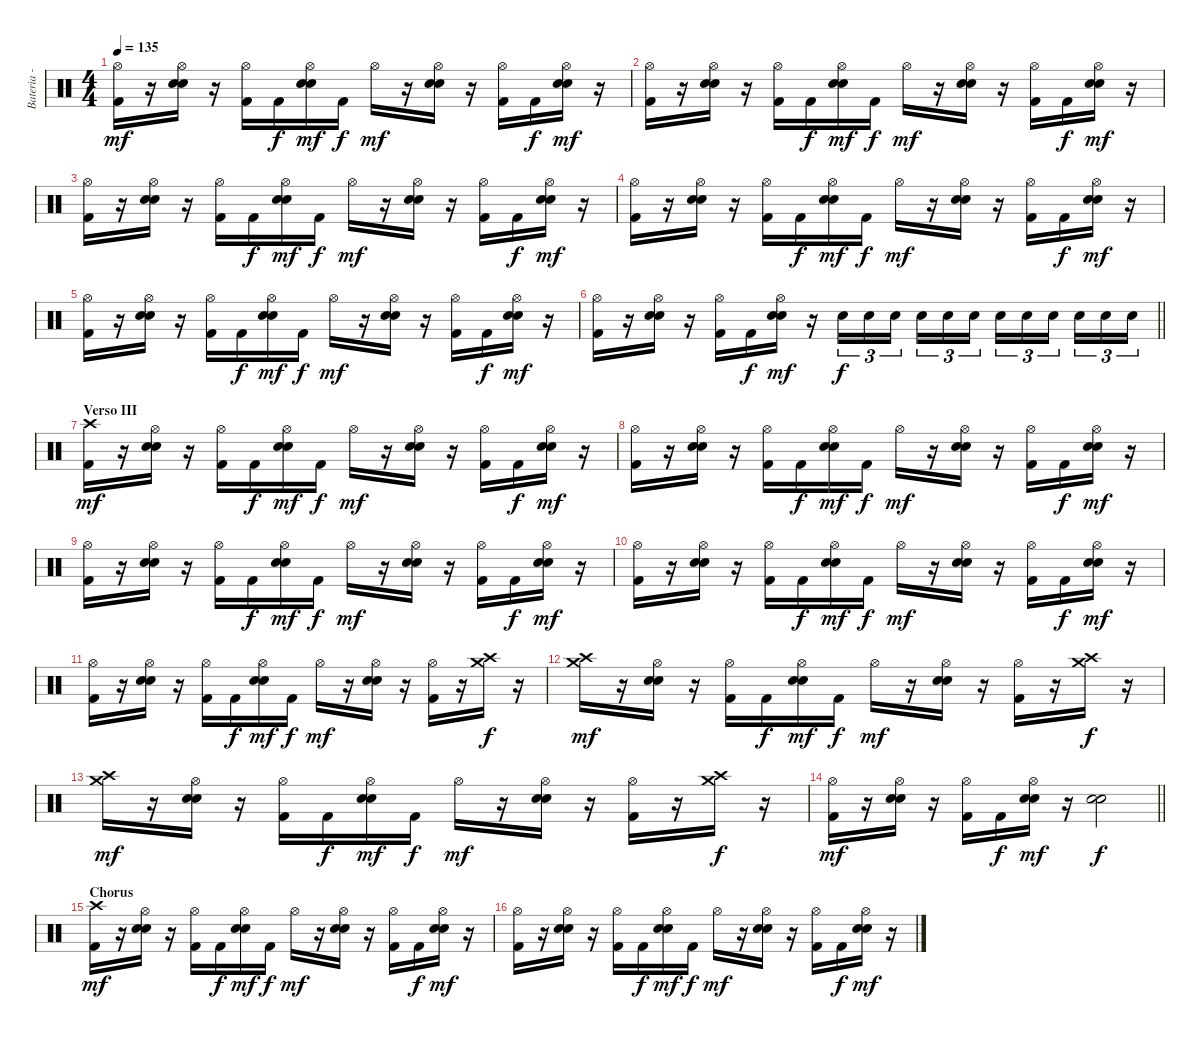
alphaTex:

\track ("Bateria - Larzon" "Bateria - ") {instrument percussion}
\staff {score}
\articulation defaults
\ts (4 4)
\tempo 135
\clef neutral
\ks c
("Kick (hit) 2" "Hi-Hat (open)").16{dy mf} r.16 ("Electric Snare (hit)" "Electric Snare (hit)" "Hi-Hat (open)").16 r.16 ("Kick (hit) 2" "Hi-Hat (open)").16 "Kick (hit) 2".16{dy f} ("Electric Snare (hit)" "Electric Snare (hit)" "Hi-Hat (open)").16{dy mf} "Kick (hit) 2".16{dy f} "Hi-Hat (open)".16{dy mf} r.16 ("Electric Snare (hit)" "Electric Snare (hit)" "Hi-Hat (open)").16 r.16 ("Kick (hit) 2" "Hi-Hat (open)").16 "Kick (hit) 2".16{dy f} ("Electric Snare (hit)" "Electric Snare (hit)" "Hi-Hat (open)").16{dy mf} r.16 |
("Kick (hit) 2" "Hi-Hat (open)").16 r.16 ("Electric Snare (hit)" "Electric Snare (hit)" "Hi-Hat (open)").16 r.16 ("Kick (hit) 2" "Hi-Hat (open)").16 "Kick (hit) 2".16{dy f} ("Electric Snare (hit)" "Electric Snare (hit)" "Hi-Hat (open)").16{dy mf} "Kick (hit) 2".16{dy f} "Hi-Hat (open)".16{dy mf} r.16 ("Electric Snare (hit)" "Electric Snare (hit)" "Hi-Hat (open)").16 r.16 ("Kick (hit) 2" "Hi-Hat (open)").16 "Kick (hit) 2".16{dy f} ("Electric Snare (hit)" "Electric Snare (hit)" "Hi-Hat (open)").16{dy mf} r.16 |
("Kick (hit) 2" "Hi-Hat (open)").16 r.16 ("Electric Snare (hit)" "Electric Snare (hit)" "Hi-Hat (open)").16 r.16 ("Kick (hit) 2" "Hi-Hat (open)").16 "Kick (hit) 2".16{dy f} ("Electric Snare (hit)" "Electric Snare (hit)" "Hi-Hat (open)").16{dy mf} "Kick (hit) 2".16{dy f} "Hi-Hat (open)".16{dy mf} r.16 ("Electric Snare (hit)" "Electric Snare (hit)" "Hi-Hat (open)").16 r.16 ("Kick (hit) 2" "Hi-Hat (open)").16 "Kick (hit) 2".16{dy f} ("Electric Snare (hit)" "Electric Snare (hit)" "Hi-Hat (open)").16{dy mf} r.16 |
("Kick (hit) 2" "Hi-Hat (open)").16 r.16 ("Electric Snare (hit)" "Electric Snare (hit)" "Hi-Hat (open)").16 r.16 ("Kick (hit) 2" "Hi-Hat (open)").16 "Kick (hit) 2".16{dy f} ("Electric Snare (hit)" "Electric Snare (hit)" "Hi-Hat (open)").16{dy mf} "Kick (hit) 2".16{dy f} "Hi-Hat (open)".16{dy mf} r.16 ("Electric Snare (hit)" "Electric Snare (hit)" "Hi-Hat (open)").16 r.16 ("Kick (hit) 2" "Hi-Hat (open)").16 "Kick (hit) 2".16{dy f} ("Electric Snare (hit)" "Electric Snare (hit)" "Hi-Hat (open)").16{dy mf} r.16 |
("Kick (hit) 2" "Hi-Hat (open)").16 r.16 ("Electric Snare (hit)" "Electric Snare (hit)" "Hi-Hat (open)").16 r.16 ("Kick (hit) 2" "Hi-Hat (open)").16 "Kick (hit) 2".16{dy f} ("Electric Snare (hit)" "Electric Snare (hit)" "Hi-Hat (open)").16{dy mf} "Kick (hit) 2".16{dy f} "Hi-Hat (open)".16{dy mf} r.16 ("Electric Snare (hit)" "Electric Snare (hit)" "Hi-Hat (open)").16 r.16 ("Kick (hit) 2" "Hi-Hat (open)").16 "Kick (hit) 2".16{dy f} ("Electric Snare (hit)" "Electric Snare (hit)" "Hi-Hat (open)").16{dy mf} r.16 |
\barLineRight lightlight
("Kick (hit) 2" "Hi-Hat (open)").16 r.16 ("Electric Snare (hit)" "Electric Snare (hit)" "Hi-Hat (open)").16 r.16 ("Kick (hit) 2" "Hi-Hat (open)").16 "Kick (hit) 2".16{dy f} ("Electric Snare (hit)" "Electric Snare (hit)" "Hi-Hat (open)").16{dy mf} r.16 "Electric Snare (hit)".16{tu (3 2) dy f} "Electric Snare (hit)".16{tu (3 2)} "Electric Snare (hit)".16{tu (3 2)} "Electric Snare (hit)".16{tu (3 2)} "Electric Snare (hit)".16{tu (3 2)} "Electric Snare (hit)".16{tu (3 2)} "Electric Snare (hit)".16{tu (3 2)} "Electric Snare (hit)".16{tu (3 2)} "Electric Snare (hit)".16{tu (3 2)} "Electric Snare (hit)".16{tu (3 2)} "Electric Snare (hit)".16{tu (3 2)} "Electric Snare (hit)".16{tu (3 2)} |
\section ("" "Verso III")
("Kick (hit) 2" "Crash high (hit)").16{dy mf} r.16 ("Electric Snare (hit)" "Electric Snare (hit)" "Hi-Hat (open)").16 r.16 ("Kick (hit) 2" "Hi-Hat (open)").16 "Kick (hit) 2".16{dy f} ("Electric Snare (hit)" "Electric Snare (hit)" "Hi-Hat (open)").16{dy mf} "Kick (hit) 2".16{dy f} "Hi-Hat (open)".16{dy mf} r.16 ("Electric Snare (hit)" "Electric Snare (hit)" "Hi-Hat (open)").16 r.16 ("Kick (hit) 2" "Hi-Hat (open)").16 "Kick (hit) 2".16{dy f} ("Electric Snare (hit)" "Electric Snare (hit)" "Hi-Hat (open)").16{dy mf} r.16 |
("Kick (hit) 2" "Hi-Hat (open)").16 r.16 ("Electric Snare (hit)" "Electric Snare (hit)" "Hi-Hat (open)").16 r.16 ("Kick (hit) 2" "Hi-Hat (open)").16 "Kick (hit) 2".16{dy f} ("Electric Snare (hit)" "Electric Snare (hit)" "Hi-Hat (open)").16{dy mf} "Kick (hit) 2".16{dy f} "Hi-Hat (open)".16{dy mf} r.16 ("Electric Snare (hit)" "Electric Snare (hit)" "Hi-Hat (open)").16 r.16 ("Kick (hit) 2" "Hi-Hat (open)").16 "Kick (hit) 2".16{dy f} ("Electric Snare (hit)" "Electric Snare (hit)" "Hi-Hat (open)").16{dy mf} r.16 |
("Kick (hit) 2" "Hi-Hat (open)").16 r.16 ("Electric Snare (hit)" "Electric Snare (hit)" "Hi-Hat (open)").16 r.16 ("Kick (hit) 2" "Hi-Hat (open)").16 "Kick (hit) 2".16{dy f} ("Electric Snare (hit)" "Electric Snare (hit)" "Hi-Hat (open)").16{dy mf} "Kick (hit) 2".16{dy f} "Hi-Hat (open)".16{dy mf} r.16 ("Electric Snare (hit)" "Electric Snare (hit)" "Hi-Hat (open)").16 r.16 ("Kick (hit) 2" "Hi-Hat (open)").16 "Kick (hit) 2".16{dy f} ("Electric Snare (hit)" "Electric Snare (hit)" "Hi-Hat (open)").16{dy mf} r.16 |
("Kick (hit) 2" "Hi-Hat (open)").16 r.16 ("Electric Snare (hit)" "Electric Snare (hit)" "Hi-Hat (open)").16 r.16 ("Kick (hit) 2" "Hi-Hat (open)").16 "Kick (hit) 2".16{dy f} ("Electric Snare (hit)" "Electric Snare (hit)" "Hi-Hat (open)").16{dy mf} "Kick (hit) 2".16{dy f} "Hi-Hat (open)".16{dy mf} r.16 ("Electric Snare (hit)" "Electric Snare (hit)" "Hi-Hat (open)").16 r.16 ("Kick (hit) 2" "Hi-Hat (open)").16 "Kick (hit) 2".16{dy f} ("Electric Snare (hit)" "Electric Snare (hit)" "Hi-Hat (open)").16{dy mf} r.16 |
("Kick (hit) 2" "Hi-Hat (open)").16 r.16 ("Electric Snare (hit)" "Electric Snare (hit)" "Hi-Hat (open)").16 r.16 ("Kick (hit) 2" "Hi-Hat (open)").16 "Kick (hit) 2".16{dy f} ("Electric Snare (hit)" "Electric Snare (hit)" "Hi-Hat (open)").16{dy mf} "Kick (hit) 2".16{dy f} "Hi-Hat (open)".16{dy mf} r.16 ("Electric Snare (hit)" "Electric Snare (hit)" "Hi-Hat (open)").16 r.16 ("Kick (hit) 2" "Hi-Hat (open)").16 r.16 ("Crash high (hit)" "Crash medium (hit)").16{dy f} r.16 |
("Crash high (hit)" "Crash medium (hit)").16{dy mf} r.16 ("Electric Snare (hit)" "Electric Snare (hit)" "Hi-Hat (open)").16 r.16 ("Kick (hit) 2" "Hi-Hat (open)").16 "Kick (hit) 2".16{dy f} ("Electric Snare (hit)" "Electric Snare (hit)" "Hi-Hat (open)").16{dy mf} "Kick (hit) 2".16{dy f} "Hi-Hat (open)".16{dy mf} r.16 ("Electric Snare (hit)" "Electric Snare (hit)" "Hi-Hat (open)").16 r.16 ("Kick (hit) 2" "Hi-Hat (open)").16 r.16 ("Crash high (hit)" "Crash medium (hit)").16{dy f} r.16 |
("Crash high (hit)" "Crash medium (hit)").16{dy mf} r.16 ("Electric Snare (hit)" "Electric Snare (hit)" "Hi-Hat (open)").16 r.16 ("Kick (hit) 2" "Hi-Hat (open)").16 "Kick (hit) 2".16{dy f} ("Electric Snare (hit)" "Electric Snare (hit)" "Hi-Hat (open)").16{dy mf} "Kick (hit) 2".16{dy f} "Hi-Hat (open)".16{dy mf} r.16 ("Electric Snare (hit)" "Electric Snare (hit)" "Hi-Hat (open)").16 r.16 ("Kick (hit) 2" "Hi-Hat (open)").16 r.16 ("Crash high (hit)" "Crash medium (hit)").16{dy f} r.16 |
\barLineRight lightlight
("Kick (hit) 2" "Hi-Hat (open)").16{dy mf} r.16 ("Electric Snare (hit)" "Electric Snare (hit)" "Hi-Hat (open)").16 r.16 ("Kick (hit) 2" "Hi-Hat (open)").16 "Kick (hit) 2".16{dy f} ("Electric Snare (hit)" "Electric Snare (hit)" "Hi-Hat (open)").16{dy mf} r.16 ("Electric Snare (hit)" "Electric Snare (hit)").2{dy f} |
\section ("" "Chorus")
("Kick (hit) 2" "Crash high (hit)").16{dy mf} r.16 ("Electric Snare (hit)" "Electric Snare (hit)" "Hi-Hat (open)").16 r.16 ("Kick (hit) 2" "Hi-Hat (open)").16 "Kick (hit) 2".16{dy f} ("Electric Snare (hit)" "Electric Snare (hit)" "Hi-Hat (open)").16{dy mf} "Kick (hit) 2".16{dy f} "Hi-Hat (open)".16{dy mf} r.16 ("Electric Snare (hit)" "Electric Snare (hit)" "Hi-Hat (open)").16 r.16 ("Kick (hit) 2" "Hi-Hat (open)").16 "Kick (hit) 2".16{dy f} ("Electric Snare (hit)" "Electric Snare (hit)" "Hi-Hat (open)").16{dy mf} r.16 |
("Kick (hit) 2" "Hi-Hat (open)").16 r.16 ("Electric Snare (hit)" "Electric Snare (hit)" "Hi-Hat (open)").16 r.16 ("Kick (hit) 2" "Hi-Hat (open)").16 "Kick (hit) 2".16{dy f} ("Electric Snare (hit)" "Electric Snare (hit)" "Hi-Hat (open)").16{dy mf} "Kick (hit) 2".16{dy f} "Hi-Hat (open)".16{dy mf} r.16 ("Electric Snare (hit)" "Electric Snare (hit)" "Hi-Hat (open)").16 r.16 ("Kick (hit) 2" "Hi-Hat (open)").16 "Kick (hit) 2".16{dy f} ("Electric Snare (hit)" "Electric Snare (hit)" "Hi-Hat (open)").16{dy mf} r.16
